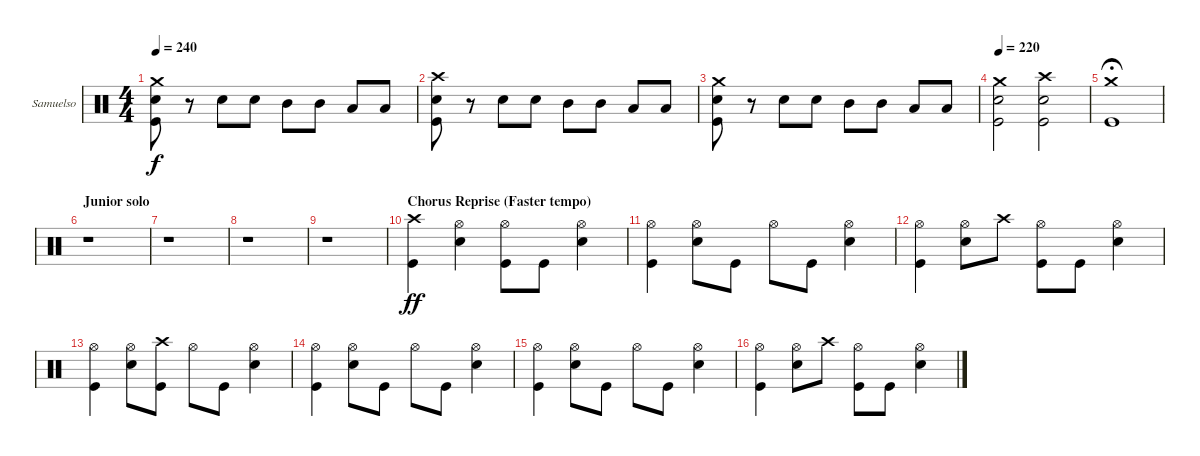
\bracketExtendMode groupsimilarinstruments
\firstSystemTrackNameOrientation horizontal
\otherSystemsTrackNameOrientation horizontal
\track ("Gar Samuelson" "Samuelso") {instrument percussion}
\staff {score}
\articulation defaults
\ts (4 4)
\tempo 240
\clef neutral
\ks c
("Kick (hit)" "Snare (hit) 2" "Crash medium (hit)").8{dy f} r.8 "Snare (hit) 2".8 "Snare (hit) 2".8 "Mid Tom (hit)".8 "Mid Tom (hit)".8 "Low Tom (hit)".8 "Low Tom (hit)".8 |
("Kick (hit)" "Snare (hit) 2" "Crash high (hit)").8 r.8 "Snare (hit) 2".8 "Snare (hit) 2".8 "Mid Tom (hit)".8 "Mid Tom (hit)".8 "Low Tom (hit)".8 "Low Tom (hit)".8 |
("Kick (hit)" "Snare (hit) 2" "Crash medium (hit)").8 r.8 "Snare (hit) 2".8 "Snare (hit) 2".8 "Mid Tom (hit)".8 "Mid Tom (hit)".8 "Low Tom (hit)".8 "Low Tom (hit)".8 |
\tempo 220
("Crash medium (hit)" "Kick (hit)" "Snare (hit) 2").2 ("Crash high (hit)" "Kick (hit)" "Snare (hit) 2").2 |
("Crash medium (hit)" "Kick (hit)").1{fermata (medium 0.8)} |
\section ("" "Junior solo")
r.1 |
r.1 |
r.1 |
r.1 |
\section ("" "Chorus Reprise (Faster tempo)")
("Crash high (hit)" "Kick (hit)").4{dy ff} ("Snare (hit) 2" "Hi-Hat (open)").4 ("Kick (hit)" "Hi-Hat (open)").8 "Kick (hit)".8 ("Snare (hit) 2" "Hi-Hat (open)").4 |
("Kick (hit)" "Hi-Hat (open)").4 ("Snare (hit) 2" "Hi-Hat (open)").8 "Kick (hit)".8 "Hi-Hat (open)".8 "Kick (hit)".8 ("Snare (hit) 2" "Hi-Hat (open)").4 |
("Kick (hit)" "Hi-Hat (open)").4 ("Snare (hit) 2" "Hi-Hat (open)").8 "Crash high (hit)".8 ("Kick (hit)" "Hi-Hat (open)").8 "Kick (hit)".8 ("Snare (hit) 2" "Hi-Hat (open)").4 |
("Kick (hit)" "Hi-Hat (open)").4 ("Snare (hit) 2" "Hi-Hat (open)").8 ("Kick (hit)" "Crash high (hit)").8 "Hi-Hat (open)".8 "Kick (hit)".8 ("Snare (hit) 2" "Hi-Hat (open)").4 |
("Kick (hit)" "Hi-Hat (open)").4 ("Snare (hit) 2" "Hi-Hat (open)").8 "Kick (hit)".8 "Hi-Hat (open)".8 "Kick (hit)".8 ("Snare (hit) 2" "Hi-Hat (open)").4 |
("Kick (hit)" "Hi-Hat (open)").4 ("Snare (hit) 2" "Hi-Hat (open)").8 "Kick (hit)".8 "Hi-Hat (open)".8 "Kick (hit)".8 ("Snare (hit) 2" "Hi-Hat (open)").4 |
("Kick (hit)" "Hi-Hat (open)").4 ("Snare (hit) 2" "Hi-Hat (open)").8 "Crash high (hit)".8 ("Kick (hit)" "Hi-Hat (open)").8 "Kick (hit)".8 ("Snare (hit) 2" "Hi-Hat (open)").4
